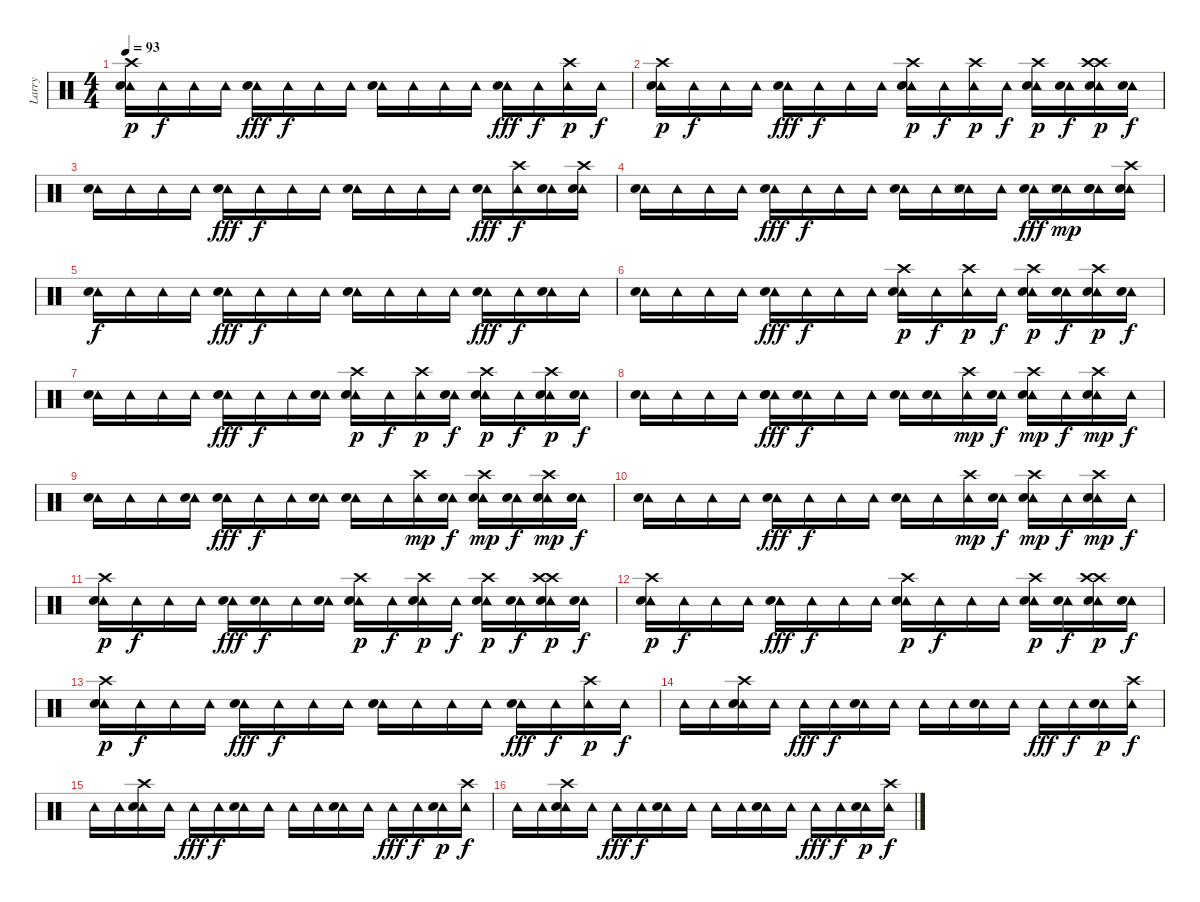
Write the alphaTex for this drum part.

\track ("Larry" "Larry") {instrument percussion}
\staff {score}
\articulation defaults
\ts (4 4)
\tempo 93
\clef neutral
\ks c
("Tambourine (hit)" "Crash high (hit)" "Electric Snare (hit)").16{dy p} "Tambourine (hit)".16{dy f} "Tambourine (hit)".16 "Tambourine (hit)".16 ("Tambourine (hit)" "Electric Snare (hit)").16{dy fff} "Tambourine (hit)".16{dy f} "Tambourine (hit)".16 "Tambourine (hit)".16 ("Tambourine (hit)" "Electric Snare (hit)").16 "Tambourine (hit)".16 "Tambourine (hit)".16 "Tambourine (hit)".16 ("Tambourine (hit)" "Electric Snare (hit)").16{dy fff} "Tambourine (hit)".16{dy f} ("Tambourine (hit)" "Crash high (hit)").16{dy p} "Tambourine (hit)".16{dy f} |
("Tambourine (hit)" "Crash high (hit)" "Electric Snare (hit)").16{dy p} "Tambourine (hit)".16{dy f} "Tambourine (hit)".16 "Tambourine (hit)".16 ("Tambourine (hit)" "Electric Snare (hit)").16{dy fff} "Tambourine (hit)".16{dy f} "Tambourine (hit)".16 "Tambourine (hit)".16 ("Tambourine (hit)" "Electric Snare (hit)" "Crash high (hit)").16{dy p} "Tambourine (hit)".16{dy f} ("Tambourine (hit)" "Crash high (hit)").16{dy p} "Tambourine (hit)".16{dy f} ("Tambourine (hit)" "Electric Snare (hit)" "Crash high (hit)").16{dy p} ("Tambourine (hit)" "Snare (hit) 2").16{dy f} ("Tambourine (hit)" "Crash high (hit)" "Electric Snare (hit)" "Crash high (hit)").16{dy p} ("Tambourine (hit)" "Electric Snare (hit)").16{dy f} |
("Tambourine (hit)" "Electric Snare (hit)").16 "Tambourine (hit)".16 "Tambourine (hit)".16 "Tambourine (hit)".16 ("Tambourine (hit)" "Electric Snare (hit)").16{dy fff} "Tambourine (hit)".16{dy f} "Tambourine (hit)".16 "Tambourine (hit)".16 ("Tambourine (hit)" "Electric Snare (hit)").16 "Tambourine (hit)".16 "Tambourine (hit)".16 "Tambourine (hit)".16 ("Tambourine (hit)" "Electric Snare (hit)").16{dy fff} ("Tambourine (hit)" "Crash high (hit)").16{dy f} ("Tambourine (hit)" "Electric Snare (hit)").16 ("Tambourine (hit)" "Snare (hit) 2" "Crash high (hit)").16 |
("Tambourine (hit)" "Electric Snare (hit)").16 "Tambourine (hit)".16 "Tambourine (hit)".16 "Tambourine (hit)".16 ("Tambourine (hit)" "Electric Snare (hit)").16{dy fff} "Tambourine (hit)".16{dy f} "Tambourine (hit)".16 "Tambourine (hit)".16 ("Tambourine (hit)" "Electric Snare (hit)").16 "Tambourine (hit)".16 ("Tambourine (hit)" "Snare (side stick) 3" "Snare (hit) 2").16 "Tambourine (hit)".16 ("Tambourine (hit)" "Electric Snare (hit)").16{dy fff} ("Tambourine (hit)" "Snare (side stick) 3" "Snare (hit) 2").16{dy mp} ("Tambourine (hit)" "Electric Snare (hit)" "Snare (hit) 2").16 ("Tambourine (hit)" "Crash high (hit)" "Snare (hit) 2").16 |
("Tambourine (hit)" "Electric Snare (hit)").16{dy f} "Tambourine (hit)".16 "Tambourine (hit)".16 "Tambourine (hit)".16 ("Tambourine (hit)" "Electric Snare (hit)").16{dy fff} "Tambourine (hit)".16{dy f} "Tambourine (hit)".16 "Tambourine (hit)".16 ("Tambourine (hit)" "Electric Snare (hit)").16 "Tambourine (hit)".16 "Tambourine (hit)".16 "Tambourine (hit)".16 ("Tambourine (hit)" "Electric Snare (hit)").16{dy fff} "Tambourine (hit)".16{dy f} ("Tambourine (hit)" "Electric Snare (hit)").16 "Tambourine (hit)".16 |
("Tambourine (hit)" "Electric Snare (hit)").16 "Tambourine (hit)".16 "Tambourine (hit)".16 "Tambourine (hit)".16 ("Tambourine (hit)" "Electric Snare (hit)").16{dy fff} "Tambourine (hit)".16{dy f} "Tambourine (hit)".16 "Tambourine (hit)".16 ("Tambourine (hit)" "Electric Snare (hit)" "Crash high (hit)").16{dy p} "Tambourine (hit)".16{dy f} ("Tambourine (hit)" "Crash high (hit)").16{dy p} "Tambourine (hit)".16{dy f} ("Tambourine (hit)" "Electric Snare (hit)" "Crash high (hit)").16{dy p} ("Tambourine (hit)" "Snare (hit) 2").16{dy f} ("Tambourine (hit)" "Electric Snare (hit)" "Crash high (hit)").16{dy p} ("Tambourine (hit)" "Snare (hit) 2").16{dy f} |
("Tambourine (hit)" "Electric Snare (hit)").16 "Tambourine (hit)".16 "Tambourine (hit)".16 "Tambourine (hit)".16 ("Tambourine (hit)" "Electric Snare (hit)").16{dy fff} "Tambourine (hit)".16{dy f} "Tambourine (hit)".16 ("Tambourine (hit)" "Electric Snare (hit)").16 ("Tambourine (hit)" "Electric Snare (hit)" "Crash high (hit)").16{dy p} "Tambourine (hit)".16{dy f} ("Tambourine (hit)" "Crash high (hit)").16{dy p} ("Tambourine (hit)" "Snare (hit) 2").16{dy f} ("Tambourine (hit)" "Electric Snare (hit)" "Crash high (hit)").16{dy p} "Tambourine (hit)".16{dy f} ("Tambourine (hit)" "Electric Snare (hit)" "Crash high (hit)").16{dy p} ("Tambourine (hit)" "Snare (hit) 2").16{dy f} |
("Tambourine (hit)" "Electric Snare (hit)").16 "Tambourine (hit)".16 "Tambourine (hit)".16 "Tambourine (hit)".16 ("Tambourine (hit)" "Electric Snare (hit)" "Snare (hit) 2").16{dy fff} ("Tambourine (hit)" "Snare (hit) 2").16{dy f} "Tambourine (hit)".16 "Tambourine (hit)".16 ("Tambourine (hit)" "Electric Snare (hit)").16 ("Tambourine (hit)" "Snare (hit) 2").16 ("Tambourine (hit)" "Crash high (hit)").16{dy mp} ("Tambourine (hit)" "Snare (hit) 2").16{dy f} ("Tambourine (hit)" "Electric Snare (hit)" "Crash high (hit)").16{dy mp} "Tambourine (hit)".16{dy f} ("Tambourine (hit)" "Electric Snare (hit)" "Crash high (hit)").16{dy mp} "Tambourine (hit)".16{dy f} |
("Tambourine (hit)" "Electric Snare (hit)").16 "Tambourine (hit)".16 "Tambourine (hit)".16 ("Tambourine (hit)" "Snare (hit) 2").16 ("Tambourine (hit)" "Electric Snare (hit)").16{dy fff} "Tambourine (hit)".16{dy f} "Tambourine (hit)".16 ("Tambourine (hit)" "Snare (hit) 2").16 ("Tambourine (hit)" "Electric Snare (hit)").16 "Tambourine (hit)".16 ("Tambourine (hit)" "Crash high (hit)").16{dy mp} ("Tambourine (hit)" "Snare (hit) 2").16{dy f} ("Tambourine (hit)" "Electric Snare (hit)" "Crash high (hit)").16{dy mp} ("Tambourine (hit)" "Snare (hit) 2").16{dy f} ("Tambourine (hit)" "Electric Snare (hit)" "Crash high (hit)").16{dy mp} ("Tambourine (hit)" "Snare (hit) 2").16{dy f} |
("Tambourine (hit)" "Electric Snare (hit)").16 "Tambourine (hit)".16 "Tambourine (hit)".16 "Tambourine (hit)".16 ("Tambourine (hit)" "Electric Snare (hit)").16{dy fff} "Tambourine (hit)".16{dy f} "Tambourine (hit)".16 "Tambourine (hit)".16 ("Tambourine (hit)" "Electric Snare (hit)").16 "Tambourine (hit)".16 ("Tambourine (hit)" "Crash high (hit)").16{dy mp} ("Tambourine (hit)" "Snare (hit) 2").16{dy f} ("Tambourine (hit)" "Electric Snare (hit)" "Crash high (hit)").16{dy mp} "Tambourine (hit)".16{dy f} ("Tambourine (hit)" "Electric Snare (hit)" "Crash high (hit)").16{dy mp} "Tambourine (hit)".16{dy f} |
("Tambourine (hit)" "Crash high (hit)" "Electric Snare (hit)").16{dy p} "Tambourine (hit)".16{dy f} "Tambourine (hit)".16 "Tambourine (hit)".16 ("Tambourine (hit)" "Electric Snare (hit)").16{dy fff} ("Tambourine (hit)" "Snare (hit) 2").16{dy f} "Tambourine (hit)".16 ("Tambourine (hit)" "Snare (hit) 2").16 ("Tambourine (hit)" "Electric Snare (hit)" "Crash high (hit)").16{dy p} "Tambourine (hit)".16{dy f} ("Tambourine (hit)" "Snare (hit) 2" "Crash high (hit)").16{dy p} "Tambourine (hit)".16{dy f} ("Tambourine (hit)" "Electric Snare (hit)" "Crash high (hit)").16{dy p} ("Tambourine (hit)" "Snare (hit) 2").16{dy f} ("Tambourine (hit)" "Crash high (hit)" "Electric Snare (hit)" "Crash high (hit)").16{dy p} ("Tambourine (hit)" "Electric Snare (hit)").16{dy f} |
("Tambourine (hit)" "Crash high (hit)" "Electric Snare (hit)").16{dy p} "Tambourine (hit)".16{dy f} "Tambourine (hit)".16 "Tambourine (hit)".16 ("Tambourine (hit)" "Electric Snare (hit)").16{dy fff} "Tambourine (hit)".16{dy f} "Tambourine (hit)".16 "Tambourine (hit)".16 ("Tambourine (hit)" "Electric Snare (hit)" "Crash high (hit)").16{dy p} "Tambourine (hit)".16{dy f} "Tambourine (hit)".16 "Tambourine (hit)".16 ("Tambourine (hit)" "Electric Snare (hit)" "Crash high (hit)").16{dy p} ("Tambourine (hit)" "Snare (hit) 2").16{dy f} ("Tambourine (hit)" "Crash high (hit)" "Electric Snare (hit)" "Crash high (hit)").16{dy p} ("Tambourine (hit)" "Electric Snare (hit)").16{dy f} |
("Tambourine (hit)" "Crash high (hit)" "Electric Snare (hit)").16{dy p} "Tambourine (hit)".16{dy f} "Tambourine (hit)".16 "Tambourine (hit)".16 ("Tambourine (hit)" "Electric Snare (hit)").16{dy fff} "Tambourine (hit)".16{dy f} "Tambourine (hit)".16 "Tambourine (hit)".16 ("Tambourine (hit)" "Electric Snare (hit)").16 "Tambourine (hit)".16 "Tambourine (hit)".16 "Tambourine (hit)".16 ("Tambourine (hit)" "Electric Snare (hit)").16{dy fff} "Tambourine (hit)".16{dy f} ("Tambourine (hit)" "Crash high (hit)").16{dy p} "Tambourine (hit)".16{dy f} |
"Tambourine (hit)".16 "Tambourine (hit)".16 ("Tambourine (hit)" "Crash high (hit)" "Electric Snare (hit)").16 "Tambourine (hit)".16 "Tambourine (hit)".16{dy fff} "Tambourine (hit)".16{dy f} ("Tambourine (hit)" "Electric Snare (hit)").16 "Tambourine (hit)".16 "Tambourine (hit)".16 "Tambourine (hit)".16 ("Tambourine (hit)" "Electric Snare (hit)").16 "Tambourine (hit)".16 "Tambourine (hit)".16{dy fff} "Tambourine (hit)".16{dy f} ("Tambourine (hit)" "Electric Snare (hit)").16{dy p} ("Tambourine (hit)" "Crash high (hit)").16{dy f} |
"Tambourine (hit)".16 "Tambourine (hit)".16 ("Tambourine (hit)" "Crash high (hit)" "Electric Snare (hit)").16 "Tambourine (hit)".16 "Tambourine (hit)".16{dy fff} "Tambourine (hit)".16{dy f} ("Tambourine (hit)" "Electric Snare (hit)").16 "Tambourine (hit)".16 "Tambourine (hit)".16 "Tambourine (hit)".16 ("Tambourine (hit)" "Electric Snare (hit)").16 "Tambourine (hit)".16 "Tambourine (hit)".16{dy fff} "Tambourine (hit)".16{dy f} ("Tambourine (hit)" "Electric Snare (hit)").16{dy p} ("Tambourine (hit)" "Crash high (hit)").16{dy f} |
"Tambourine (hit)".16 "Tambourine (hit)".16 ("Tambourine (hit)" "Crash high (hit)" "Electric Snare (hit)").16 "Tambourine (hit)".16 "Tambourine (hit)".16{dy fff} "Tambourine (hit)".16{dy f} ("Tambourine (hit)" "Electric Snare (hit)").16 "Tambourine (hit)".16 "Tambourine (hit)".16 "Tambourine (hit)".16 ("Tambourine (hit)" "Electric Snare (hit)").16 "Tambourine (hit)".16 "Tambourine (hit)".16{dy fff} "Tambourine (hit)".16{dy f} ("Tambourine (hit)" "Electric Snare (hit)").16{dy p} ("Tambourine (hit)" "Crash high (hit)").16{dy f}
